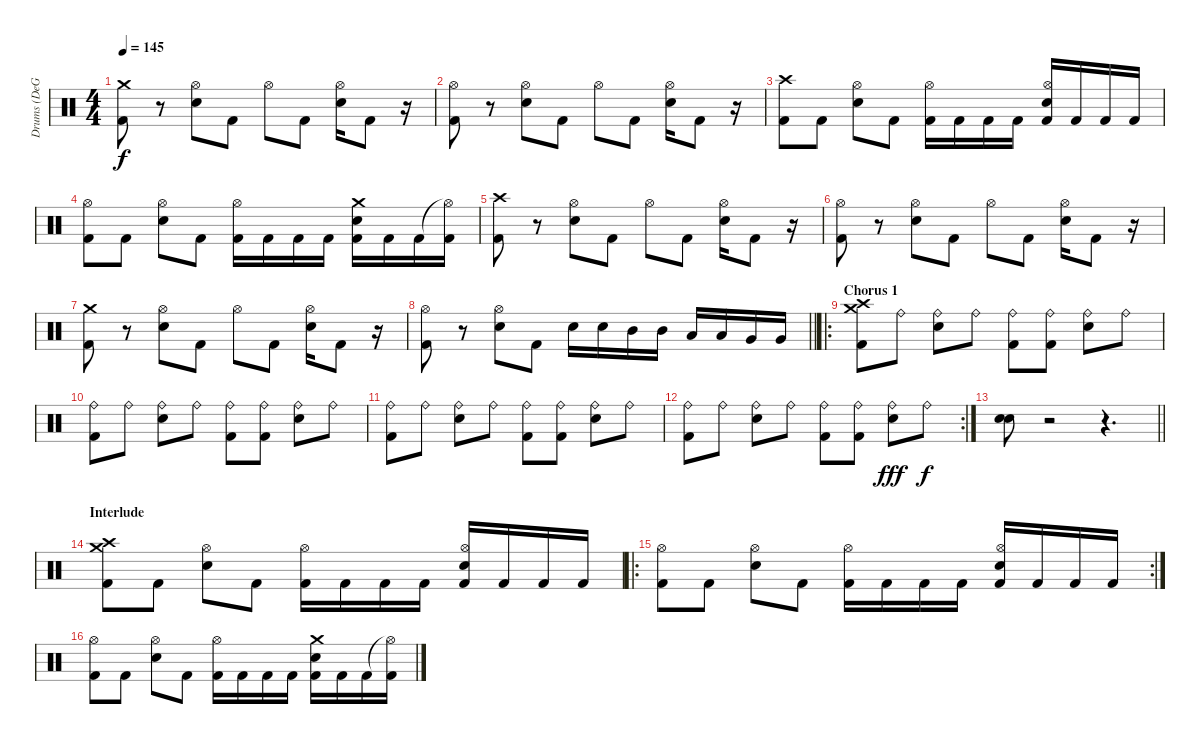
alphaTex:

\track ("Drums (DeGrasso)" "Drums (DeG") {instrument percussion}
\staff {score}
\articulation defaults
\ts (4 4)
\tempo 145
\clef neutral
\ks c
("Crash medium (hit)" "Kick (hit) 2").8{dy f} r.8 ("Hi-Hat (open)" "Snare (hit) 2").8 "Kick (hit) 2".8 "Hi-Hat (open)".8 "Kick (hit) 2".8 ("Hi-Hat (open)" "Snare (hit) 2").16 "Kick (hit) 2".8 r.16 |
("Hi-Hat (open)" "Kick (hit) 2").8 r.8 ("Hi-Hat (open)" "Snare (hit) 2").8 "Kick (hit) 2".8 "Hi-Hat (open)".8 "Kick (hit) 2".8 ("Hi-Hat (open)" "Snare (hit) 2").16 "Kick (hit) 2".8 r.16 |
("Crash high (hit)" "Kick (hit) 2").8 "Kick (hit) 2".8 ("Hi-Hat (open)" "Snare (hit) 2").8 "Kick (hit) 2".8 ("Hi-Hat (open)" "Kick (hit) 2").16 "Kick (hit) 2".16 "Kick (hit) 2".16 "Kick (hit) 2".16 ("Hi-Hat (open)" "Snare (hit) 2" "Kick (hit) 2").16 "Kick (hit) 2".16 "Kick (hit) 2".16 "Kick (hit) 2".16 |
("Hi-Hat (open)" "Kick (hit) 2").8 "Kick (hit) 2".8 ("Hi-Hat (open)" "Snare (hit) 2").8 "Kick (hit) 2".8 ("Hi-Hat (open)" "Kick (hit) 2").16 "Kick (hit) 2".16 "Kick (hit) 2".16 "Kick (hit) 2".16 ("Crash medium (hit)" "Snare (hit) 2" "Kick (hit) 2").16 "Kick (hit) 2".16 "Kick (hit) 2".16 ("Hi-Hat (open)"{t} "Kick (hit) 2").16 |
("Crash high (hit)" "Kick (hit) 2").8 r.8 ("Hi-Hat (open)" "Snare (hit) 2").8 "Kick (hit) 2".8 "Hi-Hat (open)".8 "Kick (hit) 2".8 ("Hi-Hat (open)" "Snare (hit) 2").16 "Kick (hit) 2".8 r.16 |
("Hi-Hat (open)" "Kick (hit) 2").8 r.8 ("Hi-Hat (open)" "Snare (hit) 2").8 "Kick (hit) 2".8 "Hi-Hat (open)".8 "Kick (hit) 2".8 ("Hi-Hat (open)" "Snare (hit) 2").16 "Kick (hit) 2".8 r.16 |
("Crash medium (hit)" "Kick (hit) 2").8 r.8 ("Hi-Hat (open)" "Snare (hit) 2").8 "Kick (hit) 2".8 "Hi-Hat (open)".8 "Kick (hit) 2".8 ("Hi-Hat (open)" "Snare (hit) 2").16 "Kick (hit) 2".8 r.16 |
\barLineRight lightlight
("Hi-Hat (open)" "Kick (hit) 2").8 r.8 ("Hi-Hat (open)" "Snare (hit) 2").8 "Kick (hit) 2".8 "Snare (hit) 2".16 "Snare (hit) 2".16 "Mid Tom (hit)".16 "Mid Tom (hit)".16 "Low Tom (hit)".16 "Low Tom (hit)".16 "Very Low Tom (hit)".16 "Very Low Tom (hit)".16 |
\ro
\section ("" "Chorus 1")
("Crash high (hit)" "Crash medium (hit)" "Kick (hit) 2").8 "Ride (bell)".8 ("Ride (bell)" "Snare (hit) 2").8 "Ride (bell)".8 ("Ride (bell)" "Kick (hit) 2").8 ("Ride (bell)" "Kick (hit) 2").8 ("Ride (bell)" "Snare (hit) 2").8 "Ride (bell)".8 |
("Ride (bell)" "Kick (hit) 2").8 "Ride (bell)".8 ("Ride (bell)" "Snare (hit) 2").8 "Ride (bell)".8 ("Ride (bell)" "Kick (hit) 2").8 ("Ride (bell)" "Kick (hit) 2").8 ("Ride (bell)" "Snare (hit) 2").8 "Ride (bell)".8 |
("Ride (bell)" "Kick (hit) 2").8 "Ride (bell)".8 ("Ride (bell)" "Snare (hit) 2").8 "Ride (bell)".8 ("Ride (bell)" "Kick (hit) 2").8 ("Ride (bell)" "Kick (hit) 2").8 ("Ride (bell)" "Snare (hit) 2").8 "Ride (bell)".8 |
\rc 2
("Ride (bell)" "Kick (hit) 2").8 "Ride (bell)".8 ("Ride (bell)" "Snare (hit) 2").8 "Ride (bell)".8 ("Ride (bell)" "Kick (hit) 2").8 ("Ride (bell)" "Kick (hit) 2").8 ("Ride (bell)" "Snare (hit) 2").8{dy fff} "Ride (bell)".8{dy f} |
\barLineRight lightlight
("Snare (hit) 2" "Snare (hit) 2").8 r.2 r.4{d} |
\section ("" "Interlude")
("Crash medium (hit)" "Crash high (hit)" "Kick (hit) 2").8 "Kick (hit) 2".8 ("Hi-Hat (open)" "Snare (hit) 2").8 "Kick (hit) 2".8 ("Hi-Hat (open)" "Kick (hit) 2").16 "Kick (hit) 2".16 "Kick (hit) 2".16 "Kick (hit) 2".16 ("Hi-Hat (open)" "Snare (hit) 2" "Kick (hit) 2").16 "Kick (hit) 2".16 "Kick (hit) 2".16 "Kick (hit) 2".16 |
\ro
\rc 2
("Hi-Hat (open)" "Kick (hit) 2").8 "Kick (hit) 2".8 ("Hi-Hat (open)" "Snare (hit) 2").8 "Kick (hit) 2".8 ("Hi-Hat (open)" "Kick (hit) 2").16 "Kick (hit) 2".16 "Kick (hit) 2".16 "Kick (hit) 2".16 ("Hi-Hat (open)" "Snare (hit) 2" "Kick (hit) 2").16 "Kick (hit) 2".16 "Kick (hit) 2".16 "Kick (hit) 2".16 |
("Hi-Hat (open)" "Kick (hit) 2").8 "Kick (hit) 2".8 ("Hi-Hat (open)" "Snare (hit) 2").8 "Kick (hit) 2".8 ("Hi-Hat (open)" "Kick (hit) 2").16 "Kick (hit) 2".16 "Kick (hit) 2".16 "Kick (hit) 2".16 ("Crash medium (hit)" "Snare (hit) 2" "Kick (hit) 2").16 "Kick (hit) 2".16 "Kick (hit) 2".16 ("Hi-Hat (open)"{t} "Kick (hit) 2").16
